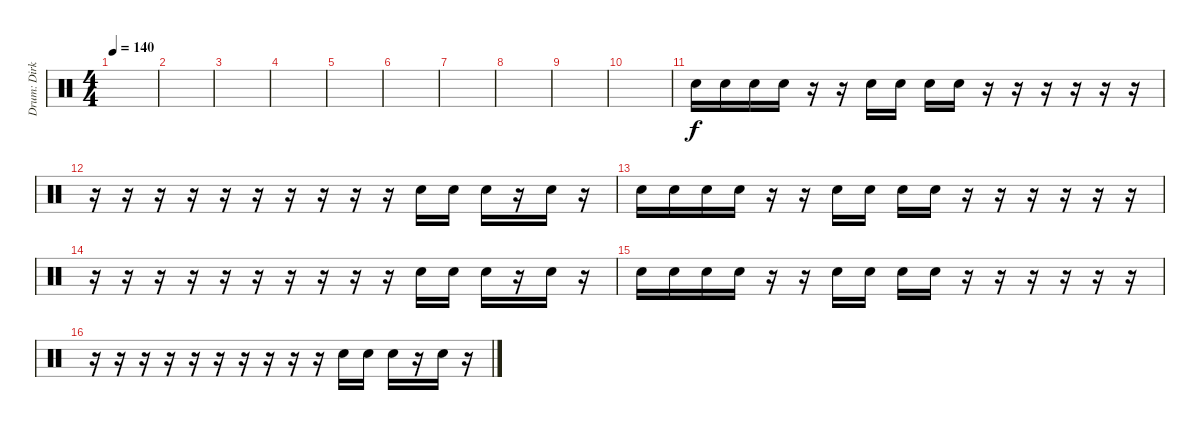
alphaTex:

\track ("Drum: Dirk" "Drum: Dirk") {instrument percussion}
\staff {score}
\articulation defaults
\ts (4 4)
\tempo 140
\clef neutral
\ks c
|
|
|
|
|
|
|
|
|
|
"Electric Snare (hit)".16{volume 4} "Electric Snare (hit)".16{volume 13} "Electric Snare (hit)".16 "Electric Snare (hit)".16 r.16 r.16 "Electric Snare (hit)".16 "Electric Snare (hit)".16 "Electric Snare (hit)".16 "Electric Snare (hit)".16 r.16 r.16 r.16 r.16 r.16 r.16 |
r.16 r.16 r.16 r.16 r.16 r.16 r.16 r.16 r.16 r.16 "Electric Snare (hit)".16 "Electric Snare (hit)".16 "Electric Snare (hit)".16 r.16 "Electric Snare (hit)".16 r.16 |
"Electric Snare (hit)".16 "Electric Snare (hit)".16 "Electric Snare (hit)".16 "Electric Snare (hit)".16 r.16 r.16 "Electric Snare (hit)".16 "Electric Snare (hit)".16 "Electric Snare (hit)".16 "Electric Snare (hit)".16 r.16 r.16 r.16 r.16 r.16 r.16 |
r.16 r.16 r.16 r.16 r.16 r.16 r.16 r.16 r.16 r.16 "Electric Snare (hit)".16 "Electric Snare (hit)".16 "Electric Snare (hit)".16 r.16 "Electric Snare (hit)".16 r.16 |
"Electric Snare (hit)".16 "Electric Snare (hit)".16 "Electric Snare (hit)".16 "Electric Snare (hit)".16 r.16 r.16 "Electric Snare (hit)".16 "Electric Snare (hit)".16 "Electric Snare (hit)".16 "Electric Snare (hit)".16 r.16 r.16 r.16 r.16 r.16 r.16 |
r.16 r.16 r.16 r.16 r.16 r.16 r.16 r.16 r.16 r.16 "Electric Snare (hit)".16 "Electric Snare (hit)".16 "Electric Snare (hit)".16 r.16 "Electric Snare (hit)".16 r.16
